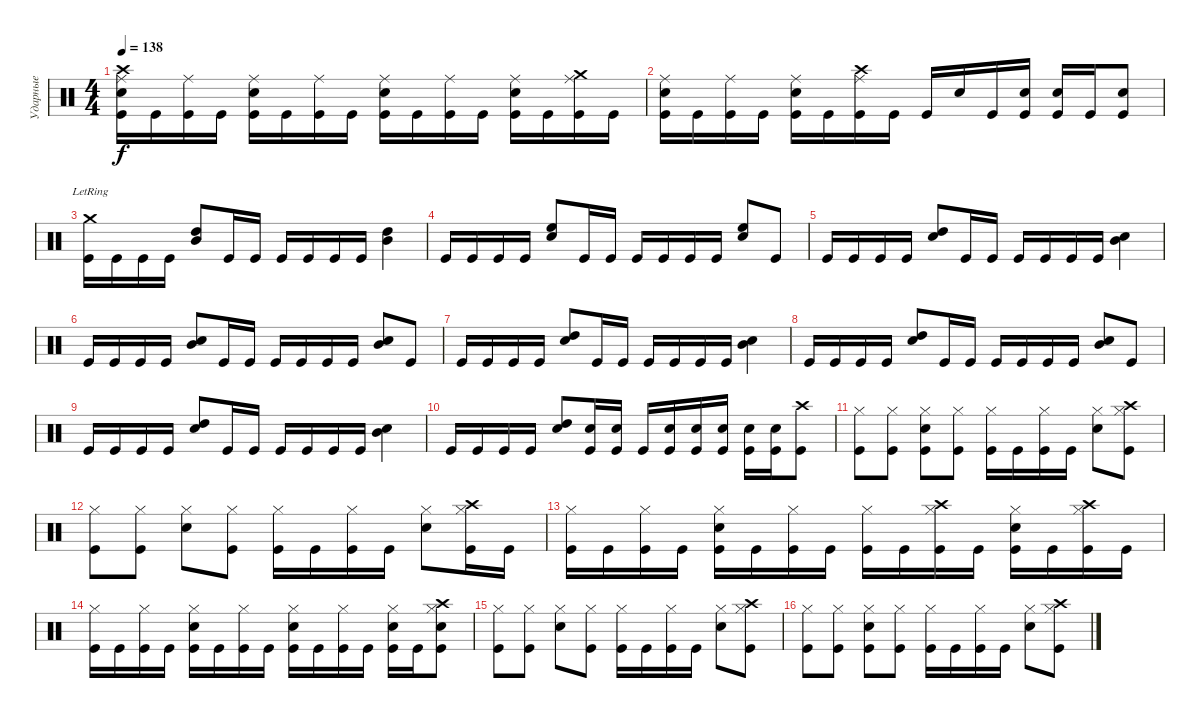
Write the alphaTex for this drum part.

\track ("Ударные" "Ударные") {instrument percussion}
\staff {score}
\articulation defaults
\ts (4 4)
\tempo 138
\clef neutral
\ks c
("Crash high (hit)" "Ride (middle)" "Electric Snare (hit)" "Kick (hit)").16{dy f} "Kick (hit)".16 ("Ride (middle)" "Kick (hit)").16 "Kick (hit)".16 ("Ride (middle)" "Electric Snare (hit)" "Kick (hit)").16 "Kick (hit)".16 ("Ride (middle)" "Kick (hit)").16 "Kick (hit)".16 ("Ride (middle)" "Electric Snare (hit)" "Kick (hit)").16 "Kick (hit)".16 ("Ride (middle)" "Kick (hit)").16 "Kick (hit)".16 ("Ride (middle)" "Electric Snare (hit)" "Kick (hit)").16 "Kick (hit)".16 ("Crash medium (hit)" "Ride (middle)" "Kick (hit)").16 "Kick (hit)".16 |
("Ride (middle)" "Electric Snare (hit)" "Kick (hit)").16 "Kick (hit)".16 ("Ride (middle)" "Kick (hit)").16 "Kick (hit)".16 ("Ride (middle)" "Electric Snare (hit)" "Kick (hit)").16 "Kick (hit)".16 ("Crash high (hit)" "Ride (middle)" "Kick (hit)").16 "Kick (hit)".16 "Kick (hit)".16 "Electric Snare (hit)".16 "Kick (hit)".16 ("Electric Snare (hit)" "Kick (hit)").16 ("Electric Snare (hit)" "Kick (hit)").16 "Kick (hit)".16 ("Electric Snare (hit)" "Kick (hit)").8 |
("Crash medium (hit)"{lr} "Kick (hit)").16 "Kick (hit)".16 "Kick (hit)".16 "Kick (hit)".16 ("High Tom (hit)" "Mid Tom (hit)").8 "Kick (hit)".16 "Kick (hit)".16 "Kick (hit)".16 "Kick (hit)".16 "Kick (hit)".16 "Kick (hit)".16 ("Mid Tom (hit)" "High Tom (hit)").4 |
"Kick (hit)".16 "Kick (hit)".16 "Kick (hit)".16 "Kick (hit)".16 ("High Floor Tom (hit)" "Electric Snare (hit)").8 "Kick (hit)".16 "Kick (hit)".16 "Kick (hit)".16 "Kick (hit)".16 "Kick (hit)".16 "Kick (hit)".16 ("High Floor Tom (hit)" "Electric Snare (hit)").8 "Kick (hit)".8 |
"Kick (hit)".16 "Kick (hit)".16 "Kick (hit)".16 "Kick (hit)".16 ("High Tom (hit)" "Electric Snare (hit)").8 "Kick (hit)".16 "Kick (hit)".16 "Kick (hit)".16 "Kick (hit)".16 "Kick (hit)".16 "Kick (hit)".16 ("Mid Tom (hit)" "Electric Snare (hit)").4 |
"Kick (hit)".16 "Kick (hit)".16 "Kick (hit)".16 "Kick (hit)".16 ("Electric Snare (hit)" "Mid Tom (hit)").8 "Kick (hit)".16 "Kick (hit)".16 "Kick (hit)".16 "Kick (hit)".16 "Kick (hit)".16 "Kick (hit)".16 ("Mid Tom (hit)" "Electric Snare (hit)").8 "Kick (hit)".8 |
"Kick (hit)".16 "Kick (hit)".16 "Kick (hit)".16 "Kick (hit)".16 ("High Tom (hit)" "Electric Snare (hit)").8 "Kick (hit)".16 "Kick (hit)".16 "Kick (hit)".16 "Kick (hit)".16 "Kick (hit)".16 "Kick (hit)".16 ("Mid Tom (hit)" "Electric Snare (hit)").4 |
"Kick (hit)".16 "Kick (hit)".16 "Kick (hit)".16 "Kick (hit)".16 ("High Tom (hit)" "Electric Snare (hit)").8 "Kick (hit)".16 "Kick (hit)".16 "Kick (hit)".16 "Kick (hit)".16 "Kick (hit)".16 "Kick (hit)".16 ("Mid Tom (hit)" "Electric Snare (hit)").8 "Kick (hit)".8 |
"Kick (hit)".16 "Kick (hit)".16 "Kick (hit)".16 "Kick (hit)".16 ("High Tom (hit)" "Electric Snare (hit)").8 "Kick (hit)".16 "Kick (hit)".16 "Kick (hit)".16 "Kick (hit)".16 "Kick (hit)".16 "Kick (hit)".16 ("Mid Tom (hit)" "Electric Snare (hit)").4 |
"Kick (hit)".16 "Kick (hit)".16 "Kick (hit)".16 "Kick (hit)".16 ("High Tom (hit)" "Electric Snare (hit)").8 ("Electric Snare (hit)" "Kick (hit)").16 ("Electric Snare (hit)" "Kick (hit)").16 "Kick (hit)".16 ("Electric Snare (hit)" "Kick (hit)").16 ("Electric Snare (hit)" "Kick (hit)").16 ("Electric Snare (hit)" "Kick (hit)").16 ("Electric Snare (hit)" "Kick (hit)").16 ("Electric Snare (hit)" "Kick (hit)").16 ("Crash high (hit)" "Kick (hit)").8 |
("Hi-Hat (closed)" "Kick (hit)").8 ("Hi-Hat (closed)" "Kick (hit)").8 ("Hi-Hat (closed)" "Electric Snare (hit)" "Kick (hit)").8 ("Hi-Hat (closed)" "Kick (hit)").8 ("Hi-Hat (closed)" "Kick (hit)").16 "Kick (hit)".16 ("Hi-Hat (closed)" "Kick (hit)").16 "Kick (hit)".16 ("Hi-Hat (closed)" "Electric Snare (hit)").8 ("Crash high (hit)" "Hi-Hat (closed)" "Kick (hit)").8 |
("Hi-Hat (closed)" "Kick (hit)").8 ("Hi-Hat (closed)" "Kick (hit)").8 ("Hi-Hat (closed)" "Electric Snare (hit)").8 ("Hi-Hat (closed)" "Kick (hit)").8 ("Hi-Hat (closed)" "Kick (hit)").16 "Kick (hit)".16 ("Hi-Hat (closed)" "Kick (hit)").16 "Kick (hit)".16 ("Hi-Hat (closed)" "Electric Snare (hit)").8 ("Crash high (hit)" "Hi-Hat (closed)" "Kick (hit)").16 "Kick (hit)".16 |
("Hi-Hat (closed)" "Kick (hit)").16 "Kick (hit)".16 ("Hi-Hat (closed)" "Kick (hit)").16 "Kick (hit)".16 ("Hi-Hat (closed)" "Electric Snare (hit)" "Kick (hit)").16 "Kick (hit)".16 ("Hi-Hat (closed)" "Kick (hit)").16 "Kick (hit)".16 ("Hi-Hat (closed)" "Kick (hit)").16 "Kick (hit)".16 ("Crash high (hit)" "Hi-Hat (closed)" "Kick (hit)").16 "Kick (hit)".16 ("Hi-Hat (closed)" "Electric Snare (hit)" "Kick (hit)").16 "Kick (hit)".16 ("Crash high (hit)" "Hi-Hat (closed)" "Kick (hit)").16 "Kick (hit)".16 |
("Hi-Hat (closed)" "Kick (hit)").16 "Kick (hit)".16 ("Hi-Hat (closed)" "Kick (hit)").16 "Kick (hit)".16 ("Hi-Hat (closed)" "Electric Snare (hit)" "Kick (hit)").16 "Kick (hit)".16 ("Hi-Hat (closed)" "Kick (hit)").16 "Kick (hit)".16 ("Hi-Hat (closed)" "Electric Snare (hit)" "Kick (hit)").16 "Kick (hit)".16 ("Hi-Hat (closed)" "Kick (hit)").16 "Kick (hit)".16 ("Hi-Hat (closed)" "Electric Snare (hit)" "Kick (hit)").16 "Kick (hit)".16 ("Crash high (hit)" "Hi-Hat (closed)" "Electric Snare (hit)" "Kick (hit)").8 |
("Hi-Hat (closed)" "Kick (hit)").8 ("Hi-Hat (closed)" "Kick (hit)").8 ("Hi-Hat (closed)" "Electric Snare (hit)").8 ("Hi-Hat (closed)" "Kick (hit)").8 ("Hi-Hat (closed)" "Kick (hit)").16 "Kick (hit)".16 ("Hi-Hat (closed)" "Kick (hit)").16 "Kick (hit)".16 ("Hi-Hat (closed)" "Electric Snare (hit)").8 ("Crash high (hit)" "Hi-Hat (closed)" "Kick (hit)").8 |
("Hi-Hat (closed)" "Kick (hit)").8 ("Hi-Hat (closed)" "Kick (hit)").8 ("Hi-Hat (closed)" "Electric Snare (hit)" "Kick (hit)").8 ("Hi-Hat (closed)" "Kick (hit)").8 ("Hi-Hat (closed)" "Kick (hit)").16 "Kick (hit)".16 ("Hi-Hat (closed)" "Kick (hit)").16 "Kick (hit)".16 ("Hi-Hat (closed)" "Electric Snare (hit)").8 ("Crash high (hit)" "Hi-Hat (closed)" "Kick (hit)").8
